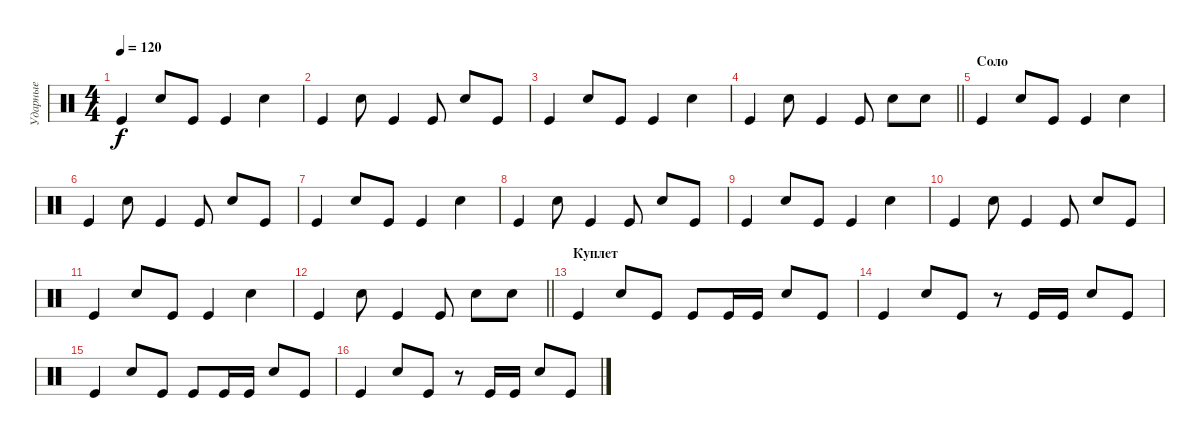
\track ("Ударные" "Ударные") {instrument percussion}
\staff {score}
\articulation defaults
\ts (4 4)
\tempo 120
\clef neutral
\ks c "Kick (hit)".4{dy f} "Snare (hit) 2".8 "Kick (hit)".8 "Kick (hit)".4 "Snare (hit) 2".4
|
"Kick (hit)".4 "Snare (hit) 2".8 "Kick (hit)".4 "Kick (hit)".8 "Snare (hit) 2".8 "Kick (hit)".8 |
"Kick (hit)".4 "Snare (hit) 2".8 "Kick (hit)".8 "Kick (hit)".4 "Snare (hit) 2".4 |
\barLineRight lightlight "Kick (hit)".4 "Snare (hit) 2".8 "Kick (hit)".4 "Kick (hit)".8 "Snare (hit) 2".8 "Snare (hit) 2".8
|
\section ("" "Соло")
"Kick (hit)".4 "Snare (hit) 2".8 "Kick (hit)".8 "Kick (hit)".4 "Snare (hit) 2".4 |
"Kick (hit)".4 "Snare (hit) 2".8 "Kick (hit)".4 "Kick (hit)".8 "Snare (hit) 2".8 "Kick (hit)".8 |
"Kick (hit)".4 "Snare (hit) 2".8 "Kick (hit)".8 "Kick (hit)".4 "Snare (hit) 2".4 |
"Kick (hit)".4 "Snare (hit) 2".8 "Kick (hit)".4 "Kick (hit)".8 "Snare (hit) 2".8 "Kick (hit)".8 |
"Kick (hit)".4 "Snare (hit) 2".8 "Kick (hit)".8 "Kick (hit)".4 "Snare (hit) 2".4 |
"Kick (hit)".4 "Snare (hit) 2".8 "Kick (hit)".4 "Kick (hit)".8 "Snare (hit) 2".8 "Kick (hit)".8 |
"Kick (hit)".4 "Snare (hit) 2".8 "Kick (hit)".8 "Kick (hit)".4 "Snare (hit) 2".4 |
\barLineRight lightlight "Kick (hit)".4 "Snare (hit) 2".8 "Kick (hit)".4 "Kick (hit)".8 "Snare (hit) 2".8 "Snare (hit) 2".8
|
\section ("" "Куплет")
"Kick (hit)".4 "Snare (hit) 2".8 "Kick (hit)".8 "Kick (hit)".8 "Kick (hit)".16 "Kick (hit)".16 "Snare (hit) 2".8 "Kick (hit)".8 |
"Kick (hit)".4 "Snare (hit) 2".8 "Kick (hit)".8 r.8 "Kick (hit)".16 "Kick (hit)".16 "Snare (hit) 2".8 "Kick (hit)".8 |
"Kick (hit)".4 "Snare (hit) 2".8 "Kick (hit)".8 "Kick (hit)".8 "Kick (hit)".16 "Kick (hit)".16 "Snare (hit) 2".8 "Kick (hit)".8 |
"Kick (hit)".4 "Snare (hit) 2".8 "Kick (hit)".8 r.8 "Kick (hit)".16 "Kick (hit)".16 "Snare (hit) 2".8 "Kick (hit)".8
